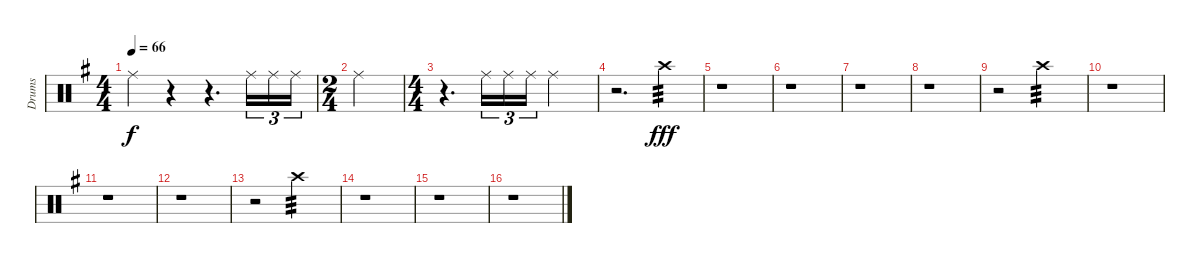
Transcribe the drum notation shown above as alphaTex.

\track ("Drums" "Drums") {instrument percussion}
\staff {score}
\articulation defaults
\ts (4 4)
\tempo 66
\clef neutral
\ks g "Ride (middle)".4{dy f}
r.4 r.4{d} "Ride (middle)".16{tu (3 2)} "Ride (middle)".16{tu (3 2)} "Ride (middle)".16{tu (3 2)} |
\ts (2 4)
"Ride (middle)".2 |
\ts (4 4)
r.4{d} "Ride (middle)".16{tu (3 2)} "Ride (middle)".16{tu (3 2)} "Ride (middle)".16{tu (3 2)} "Ride (middle)".2 |
r.2{d volume 0} "Crash high (hit)".4{tp 3 dy fff volume 13} |
r.1 |
r.1 |
r.1 |
r.1 |
r.2{volume 0} "Crash high (hit)".2{tp 3 volume 13} |
r.1 |
r.1 |
r.1 |
r.2{volume 0} "Crash high (hit)".2{tp 3 volume 13} |
r.1 |
r.1 |
r.1
